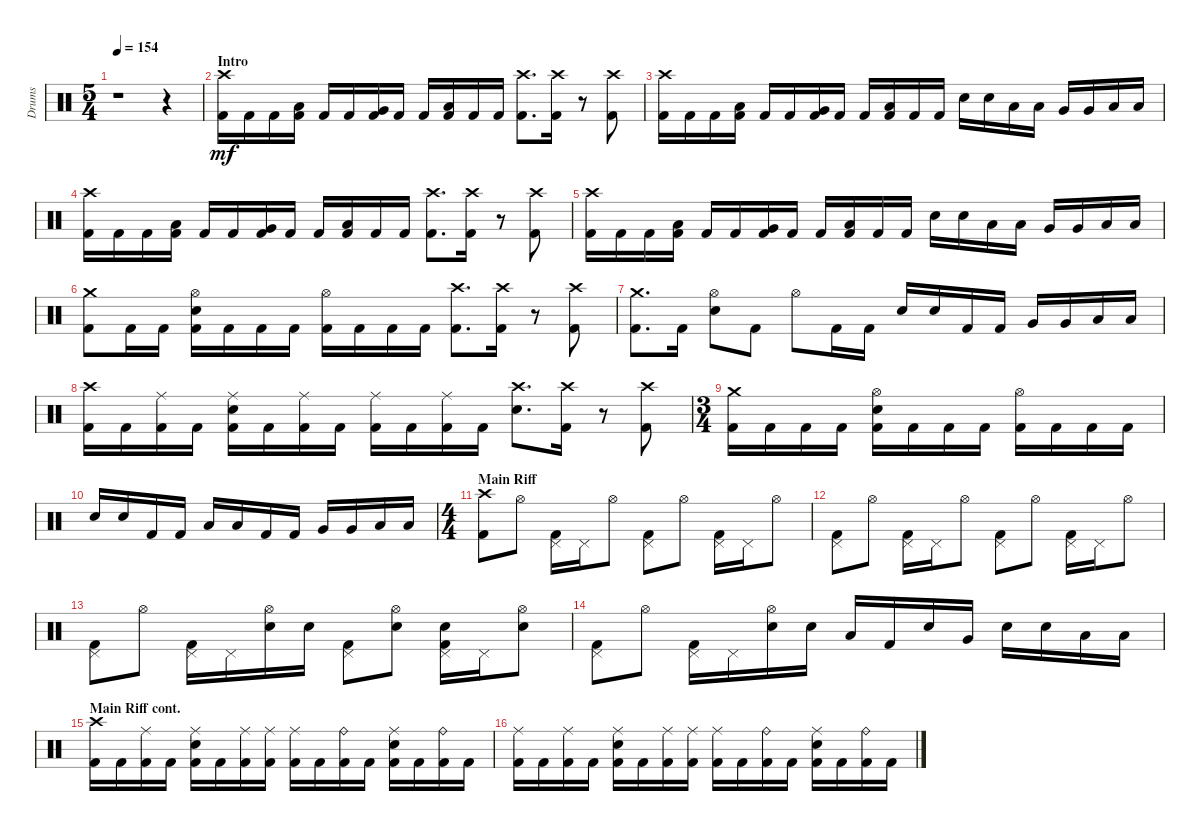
\track ("Drums" "Drums") {instrument percussion}
\staff {score}
\articulation defaults
\ts (5 4)
\tempo 154
\clef neutral
\ks aminor
r.1{dy mf} r.4 |
\section ("" "Intro")
("Kick (hit) 2" "Crash high (hit)").16 "Kick (hit) 2".16 "Kick (hit) 2".16 ("Kick (hit) 2" "Low Tom (hit)").16 "Kick (hit) 2".16 "Kick (hit) 2".16 ("Kick (hit) 2" "Very Low Tom (hit)").16 "Kick (hit) 2".16 "Kick (hit) 2".16 ("Kick (hit) 2" "Low Floor Tom (hit)").16 "Kick (hit) 2".16 "Kick (hit) 2".16 ("Kick (hit) 2" "Crash high (hit)").8{d} ("Kick (hit) 2" "Crash high (hit)").16 r.8 ("Kick (hit) 2" "Crash high (hit)").8 |
("Kick (hit) 2" "Crash high (hit)").16 "Kick (hit) 2".16 "Kick (hit) 2".16 ("Kick (hit) 2" "Low Tom (hit)").16 "Kick (hit) 2".16 "Kick (hit) 2".16 ("Kick (hit) 2" "Very Low Tom (hit)").16 "Kick (hit) 2".16 "Kick (hit) 2".16 ("Kick (hit) 2" "Low Floor Tom (hit)").16 "Kick (hit) 2".16 "Kick (hit) 2".16 "Snare (hit) 2".16 "Snare (hit) 2".16 "Low Tom (hit)".16 "Low Tom (hit)".16 "Very Low Tom (hit)".16 "Very Low Tom (hit)".16 "Low Floor Tom (hit)".16 "Low Floor Tom (hit)".16 |
("Kick (hit) 2" "Crash high (hit)").16 "Kick (hit) 2".16 "Kick (hit) 2".16 ("Kick (hit) 2" "Low Tom (hit)").16 "Kick (hit) 2".16 "Kick (hit) 2".16 ("Kick (hit) 2" "Very Low Tom (hit)").16 "Kick (hit) 2".16 "Kick (hit) 2".16 ("Kick (hit) 2" "Low Floor Tom (hit)").16 "Kick (hit) 2".16 "Kick (hit) 2".16 ("Kick (hit) 2" "Crash high (hit)").8{d} ("Kick (hit) 2" "Crash high (hit)").16 r.8 ("Kick (hit) 2" "Crash high (hit)").8 |
("Kick (hit) 2" "Crash high (hit)").16 "Kick (hit) 2".16 "Kick (hit) 2".16 ("Kick (hit) 2" "Low Tom (hit)").16 "Kick (hit) 2".16 "Kick (hit) 2".16 ("Kick (hit) 2" "Very Low Tom (hit)").16 "Kick (hit) 2".16 "Kick (hit) 2".16 ("Kick (hit) 2" "Low Floor Tom (hit)").16 "Kick (hit) 2".16 "Kick (hit) 2".16 "Snare (hit) 2".16 "Snare (hit) 2".16 "Low Tom (hit)".16 "Low Tom (hit)".16 "Very Low Tom (hit)".16 "Very Low Tom (hit)".16 "Low Floor Tom (hit)".16 "Low Floor Tom (hit)".16 |
("Kick (hit) 2" "Crash medium (hit)").8 "Kick (hit) 2".16 "Kick (hit) 2".16 ("Kick (hit) 2" "Snare (hit) 2" "Hi-Hat (open)").16 "Kick (hit) 2".16 "Kick (hit) 2".16 "Kick (hit) 2".16 ("Kick (hit) 2" "Hi-Hat (open)").16 "Kick (hit) 2".16 "Kick (hit) 2".16 "Kick (hit) 2".16 ("Kick (hit) 2" "Crash high (hit)").8{d} ("Kick (hit) 2" "Crash high (hit)").16 r.8 ("Kick (hit) 2" "Crash high (hit)").8 |
("Kick (hit) 2" "Crash medium (hit)").8{d} "Kick (hit) 2".16 ("Snare (hit) 2" "Hi-Hat (open)").8 "Kick (hit) 2".8 "Hi-Hat (open)".8 "Kick (hit) 2".16 "Kick (hit) 2".16 "Snare (hit) 2".16 "Snare (hit) 2".16 "Kick (hit) 2".16 "Kick (hit) 2".16 "Very Low Tom (hit)".16 "Very Low Tom (hit)".16 "Low Floor Tom (hit)".16 "Low Floor Tom (hit)".16 |
("Kick (hit) 2" "Crash high (hit)").16 "Kick (hit) 2".16 ("Kick (hit) 2" "Ride (middle)").16 "Kick (hit) 2".16 ("Kick (hit) 2" "Snare (hit) 2" "Ride (middle)").16 "Kick (hit) 2".16 ("Kick (hit) 2" "Ride (middle)").16 "Kick (hit) 2".16 ("Kick (hit) 2" "Ride (middle)").16 "Kick (hit) 2".16 ("Kick (hit) 2" "Ride (middle)").16 "Kick (hit) 2".16 ("Snare (hit) 2" "Crash high (hit)").8{d} ("Kick (hit) 2" "Crash high (hit)").16 r.8 ("Kick (hit) 2" "Crash high (hit)").8 |
\ts (3 4)
("Kick (hit) 2" "Crash medium (hit)").16 "Kick (hit) 2".16 "Kick (hit) 2".16 "Kick (hit) 2".16 ("Kick (hit) 2" "Snare (hit) 2" "Hi-Hat (open)").16 "Kick (hit) 2".16 "Kick (hit) 2".16 "Kick (hit) 2".16 ("Kick (hit) 2" "Hi-Hat (open)").16 "Kick (hit) 2".16 "Kick (hit) 2".16 "Kick (hit) 2".16 |
"Snare (hit) 2".16 "Snare (hit) 2".16 "Kick (hit) 2".16 "Kick (hit) 2".16 "Low Tom (hit)".16 "Low Tom (hit)".16 "Kick (hit) 2".16 "Kick (hit) 2".16 "Very Low Tom (hit)".16 "Very Low Tom (hit)".16 "Low Floor Tom (hit)".16 "Low Floor Tom (hit)".16 |
\ts (4 4)
\section ("" "Main Riff")
("Kick (hit) 2" "Crash high (hit)").8 "Hi-Hat (open)".8 ("Kick (hit) 2" "Pedal Hi-Hat (hit)").16 "Pedal Hi-Hat (hit)".16 "Hi-Hat (open)".8 ("Kick (hit) 2" "Pedal Hi-Hat (hit)").8 "Hi-Hat (open)".8 ("Kick (hit) 2" "Pedal Hi-Hat (hit)").16 "Pedal Hi-Hat (hit)".16 "Hi-Hat (open)".8 |
("Kick (hit) 2" "Pedal Hi-Hat (hit)").8 "Hi-Hat (open)".8 ("Kick (hit) 2" "Pedal Hi-Hat (hit)").16 "Pedal Hi-Hat (hit)".16 "Hi-Hat (open)".8 ("Kick (hit) 2" "Pedal Hi-Hat (hit)").8 "Hi-Hat (open)".8 ("Kick (hit) 2" "Pedal Hi-Hat (hit)").16 "Pedal Hi-Hat (hit)".16 "Hi-Hat (open)".8 |
("Kick (hit) 2" "Pedal Hi-Hat (hit)").8 "Hi-Hat (open)".8 ("Kick (hit) 2" "Pedal Hi-Hat (hit)").16 "Pedal Hi-Hat (hit)".16 ("Snare (hit) 2" "Hi-Hat (open)").16 "Snare (hit) 2".16 ("Kick (hit) 2" "Pedal Hi-Hat (hit)").8 ("Snare (hit) 2" "Hi-Hat (open)").8 ("Kick (hit) 2" "Snare (hit) 2" "Pedal Hi-Hat (hit)").16 "Pedal Hi-Hat (hit)".16 ("Snare (hit) 2" "Hi-Hat (open)").8 |
("Kick (hit) 2" "Pedal Hi-Hat (hit)").8 "Hi-Hat (open)".8 ("Kick (hit) 2" "Pedal Hi-Hat (hit)").16 "Pedal Hi-Hat (hit)".16 ("Snare (hit) 2" "Hi-Hat (open)").16 "Snare (hit) 2".16 "Low Tom (hit)".16 "Kick (hit) 2".16 "Snare (hit) 2".16 "Very Low Tom (hit)".16 "Snare (hit) 2".16 "Snare (hit) 2".16 "Low Floor Tom (hit)".16 "Low Floor Tom (hit)".16 |
\section ("" "Main Riff cont.")
("Kick (hit) 2" "Crash high (hit)").16 "Kick (hit) 2".16 ("Kick (hit) 2" "Ride (middle)").16 "Kick (hit) 2".16 ("Kick (hit) 2" "Snare (hit) 2" "Ride (middle)").16 "Kick (hit) 2".16 ("Kick (hit) 2" "Ride (middle)").16 ("Kick (hit) 2" "Ride (middle)").16 ("Kick (hit) 2" "Ride (middle)").16 "Kick (hit) 2".16 ("Kick (hit) 2" "Ride (bell)").16 "Kick (hit) 2".16 ("Kick (hit) 2" "Snare (hit) 2" "Ride (middle)").16 "Kick (hit) 2".16 ("Kick (hit) 2" "Ride (bell)").16 "Kick (hit) 2".16 |
("Kick (hit) 2" "Ride (middle)").16 "Kick (hit) 2".16 ("Kick (hit) 2" "Ride (middle)").16 "Kick (hit) 2".16 ("Kick (hit) 2" "Snare (hit) 2" "Ride (middle)").16 "Kick (hit) 2".16 ("Kick (hit) 2" "Ride (middle)").16 ("Kick (hit) 2" "Ride (middle)").16 ("Kick (hit) 2" "Ride (middle)").16 "Kick (hit) 2".16 ("Kick (hit) 2" "Ride (bell)").16 "Kick (hit) 2".16 ("Kick (hit) 2" "Snare (hit) 2" "Ride (middle)").16 "Kick (hit) 2".16 ("Kick (hit) 2" "Ride (bell)").16 "Kick (hit) 2".16
